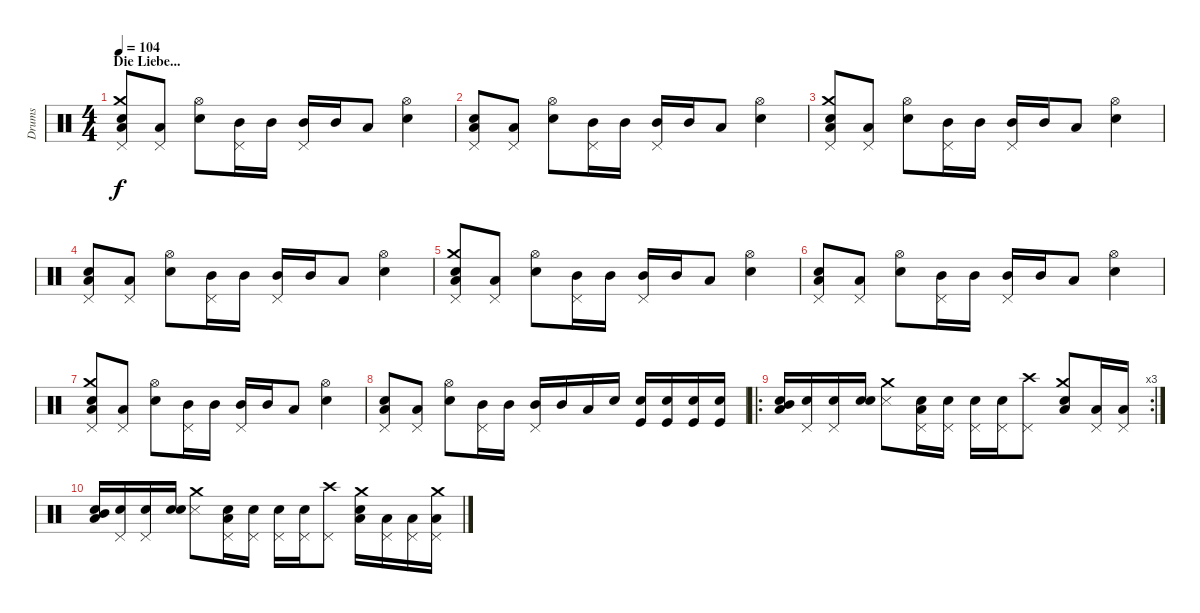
\track ("Drums" "Drums") {instrument percussion}
\staff {score}
\articulation defaults
\ts (4 4)
\section ("" "Die Liebe...")
\tempo 104
\clef neutral
\ks c
("Snare (hit) 2" "Crash medium (hit)" "Pedal Hi-Hat (hit)" "Low Floor Tom (hit)").8{dy f} ("Pedal Hi-Hat (hit)" "Low Floor Tom (hit)").8 ("Snare (hit) 2" "Hi-Hat (open)").8 ("Mid Tom (hit)" "Pedal Hi-Hat (hit)").16 "Mid Tom (hit)".16 ("Mid Tom (hit)" "Pedal Hi-Hat (hit)").16 "Mid Tom (hit)".16 "Low Floor Tom (hit)".8 ("Snare (hit) 2" "Hi-Hat (open)").4 |
("Snare (hit) 2" "Pedal Hi-Hat (hit)" "Low Floor Tom (hit)").8 ("Pedal Hi-Hat (hit)" "Low Floor Tom (hit)").8 ("Snare (hit) 2" "Hi-Hat (open)").8 ("Mid Tom (hit)" "Pedal Hi-Hat (hit)").16 "Mid Tom (hit)".16 ("Mid Tom (hit)" "Pedal Hi-Hat (hit)").16 "Mid Tom (hit)".16 "Low Floor Tom (hit)".8 ("Snare (hit) 2" "Hi-Hat (open)").4 |
("Snare (hit) 2" "Crash medium (hit)" "Pedal Hi-Hat (hit)" "Low Floor Tom (hit)").8 ("Pedal Hi-Hat (hit)" "Low Floor Tom (hit)").8 ("Snare (hit) 2" "Hi-Hat (open)").8 ("Mid Tom (hit)" "Pedal Hi-Hat (hit)").16 "Mid Tom (hit)".16 ("Mid Tom (hit)" "Pedal Hi-Hat (hit)").16 "Mid Tom (hit)".16 "Low Floor Tom (hit)".8 ("Snare (hit) 2" "Hi-Hat (open)").4 |
("Snare (hit) 2" "Pedal Hi-Hat (hit)" "Low Floor Tom (hit)").8 ("Pedal Hi-Hat (hit)" "Low Floor Tom (hit)").8 ("Snare (hit) 2" "Hi-Hat (open)").8 ("Mid Tom (hit)" "Pedal Hi-Hat (hit)").16 "Mid Tom (hit)".16 ("Mid Tom (hit)" "Pedal Hi-Hat (hit)").16 "Mid Tom (hit)".16 "Low Floor Tom (hit)".8 ("Snare (hit) 2" "Hi-Hat (open)").4 |
("Snare (hit) 2" "Crash medium (hit)" "Pedal Hi-Hat (hit)" "Low Floor Tom (hit)").8 ("Pedal Hi-Hat (hit)" "Low Floor Tom (hit)").8 ("Snare (hit) 2" "Hi-Hat (open)").8 ("Mid Tom (hit)" "Pedal Hi-Hat (hit)").16 "Mid Tom (hit)".16 ("Mid Tom (hit)" "Pedal Hi-Hat (hit)").16 "Mid Tom (hit)".16 "Low Floor Tom (hit)".8 ("Snare (hit) 2" "Hi-Hat (open)").4 |
("Snare (hit) 2" "Pedal Hi-Hat (hit)" "Low Floor Tom (hit)").8 ("Pedal Hi-Hat (hit)" "Low Floor Tom (hit)").8 ("Snare (hit) 2" "Hi-Hat (open)").8 ("Mid Tom (hit)" "Pedal Hi-Hat (hit)").16 "Mid Tom (hit)".16 ("Mid Tom (hit)" "Pedal Hi-Hat (hit)").16 "Mid Tom (hit)".16 "Low Floor Tom (hit)".8 ("Snare (hit) 2" "Hi-Hat (open)").4 |
("Snare (hit) 2" "Crash medium (hit)" "Pedal Hi-Hat (hit)" "Low Floor Tom (hit)").8 ("Pedal Hi-Hat (hit)" "Low Floor Tom (hit)").8 ("Snare (hit) 2" "Hi-Hat (open)").8 ("Mid Tom (hit)" "Pedal Hi-Hat (hit)").16 "Mid Tom (hit)".16 ("Mid Tom (hit)" "Pedal Hi-Hat (hit)").16 "Mid Tom (hit)".16 "Low Floor Tom (hit)".8 ("Snare (hit) 2" "Hi-Hat (open)").4 |
("Snare (hit) 2" "Pedal Hi-Hat (hit)" "Low Floor Tom (hit)").8 ("Pedal Hi-Hat (hit)" "Low Floor Tom (hit)").8 ("Snare (hit) 2" "Hi-Hat (open)").8 ("Mid Tom (hit)" "Pedal Hi-Hat (hit)").16 "Mid Tom (hit)".16 ("Mid Tom (hit)" "Pedal Hi-Hat (hit)").16 "Mid Tom (hit)".16 "Low Floor Tom (hit)".16 "Snare (hit) 2".16 ("Snare (hit) 2" "Kick (hit)").16 ("Snare (hit) 2" "Kick (hit)").16 ("Snare (hit) 2" "Kick (hit)").16 ("Snare (hit) 2" "Kick (hit)").16 |
\ro
\rc 3
("Snare (hit) 2" "Mid Tom (hit)" "Low Floor Tom (hit)").16 ("Snare (hit) 2" "Pedal Hi-Hat (hit)").16 ("Snare (hit) 2" "Pedal Hi-Hat (hit)").16 ("Snare (hit) 2" "Snare (hit)").16 ("Snare (side stick) 3" "Crash medium (hit)").8 ("Snare (hit) 2" "Pedal Hi-Hat (hit)" "Low Floor Tom (hit)").16 ("Snare (hit) 2" "Pedal Hi-Hat (hit)").16 ("Snare (hit) 2" "Pedal Hi-Hat (hit)").16 ("Snare (hit) 2" "Pedal Hi-Hat (hit)").16 ("Crash high (hit)" "Pedal Hi-Hat (hit)").8 ("Crash medium (hit)" "Snare (hit) 2" "Low Floor Tom (hit)").8 ("Pedal Hi-Hat (hit)" "Low Floor Tom (hit)").16 ("Pedal Hi-Hat (hit)" "Low Floor Tom (hit)").16 |
("Snare (hit) 2" "Mid Tom (hit)" "Low Floor Tom (hit)").16 ("Snare (hit) 2" "Pedal Hi-Hat (hit)").16 ("Snare (hit) 2" "Pedal Hi-Hat (hit)").16 ("Snare (hit) 2" "Snare (hit)").16 ("Snare (side stick) 3" "Crash medium (hit)").8 ("Snare (hit) 2" "Pedal Hi-Hat (hit)" "Low Floor Tom (hit)").16 ("Snare (hit) 2" "Pedal Hi-Hat (hit)").16 ("Snare (hit) 2" "Pedal Hi-Hat (hit)").16 ("Snare (hit) 2" "Pedal Hi-Hat (hit)").16 ("Crash high (hit)" "Pedal Hi-Hat (hit)").8 ("Crash medium (hit)" "Snare (hit) 2" "Low Floor Tom (hit)").16 ("Pedal Hi-Hat (hit)" "Low Floor Tom (hit)").16 ("Pedal Hi-Hat (hit)" "Low Floor Tom (hit)").16 ("Pedal Hi-Hat (hit)" "Crash medium (hit)" "Low Floor Tom (hit)").16
